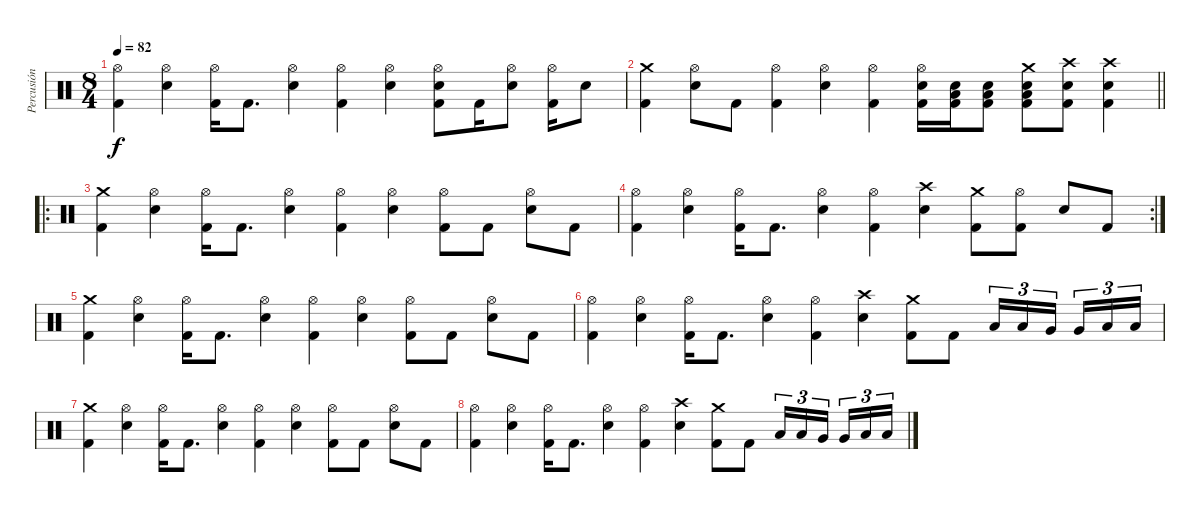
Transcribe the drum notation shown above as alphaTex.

\track ("Percusión" "Percusión") {instrument percussion}
\staff {score}
\articulation defaults
\ts (8 4)
\tempo 82
\clef neutral
\ks c
("Hi-Hat (open)" "Kick (hit) 2").4{dy f} ("Hi-Hat (open)" "Electric Snare (hit)").4 ("Hi-Hat (open)" "Kick (hit) 2").16 "Kick (hit) 2".8{d} ("Hi-Hat (open)" "Electric Snare (hit)").4 ("Hi-Hat (open)" "Kick (hit) 2").4 ("Hi-Hat (open)" "Electric Snare (hit)").4 ("Hi-Hat (open)" "Electric Snare (hit)" "Kick (hit) 2").8 "Kick (hit) 2".16 ("Hi-Hat (open)" "Electric Snare (hit)").8 ("Hi-Hat (open)" "Kick (hit) 2").16 "Electric Snare (hit)".8 |
\barLineRight lightlight
("Crash medium (hit)" "Kick (hit) 2").4 ("Hi-Hat (open)" "Electric Snare (hit)").8 "Kick (hit) 2".8 ("Hi-Hat (open)" "Kick (hit) 2").4 ("Hi-Hat (open)" "Electric Snare (hit)").4 ("Hi-Hat (open)" "Kick (hit) 2").4 ("Hi-Hat (open)" "Electric Snare (hit)" "Kick (hit) 2").16 ("Low Tom (hit)" "Electric Snare (hit)" "Kick (hit) 2").16 ("Low Tom (hit)" "Electric Snare (hit)" "Kick (hit) 2").8 ("Crash medium (hit)" "Low Floor Tom (hit)" "Electric Snare (hit)" "Kick (hit) 2").8 ("Crash high (hit)" "Electric Snare (hit)" "Kick (hit) 2").8 ("Crash high (hit)" "Electric Snare (hit)" "Kick (hit) 2").4 |
\ro
("Crash medium (hit)" "Kick (hit) 2").4 ("Hi-Hat (open)" "Electric Snare (hit)").4 ("Hi-Hat (open)" "Kick (hit) 2").16 "Kick (hit) 2".8{d} ("Hi-Hat (open)" "Electric Snare (hit)").4 ("Hi-Hat (open)" "Kick (hit) 2").4 ("Hi-Hat (open)" "Electric Snare (hit)").4 ("Hi-Hat (open)" "Kick (hit) 2").8 "Kick (hit) 2".8 ("Hi-Hat (open)" "Electric Snare (hit)").8 "Kick (hit) 2".8 |
\rc 2
("Hi-Hat (open)" "Kick (hit) 2").4 ("Hi-Hat (open)" "Electric Snare (hit)").4 ("Hi-Hat (open)" "Kick (hit) 2").16 "Kick (hit) 2".8{d} ("Hi-Hat (open)" "Electric Snare (hit)").4 ("Hi-Hat (open)" "Kick (hit) 2").4 ("Crash high (hit)" "Electric Snare (hit)").4 ("Crash medium (hit)" "Kick (hit) 2").8 ("Hi-Hat (open)" "Kick (hit) 2").8 "Electric Snare (hit)".8 "Kick (hit) 2".8 |
("Crash medium (hit)" "Kick (hit) 2").4 ("Hi-Hat (open)" "Electric Snare (hit)").4 ("Hi-Hat (open)" "Kick (hit) 2").16 "Kick (hit) 2".8{d} ("Hi-Hat (open)" "Electric Snare (hit)").4 ("Hi-Hat (open)" "Kick (hit) 2").4 ("Hi-Hat (open)" "Electric Snare (hit)").4 ("Hi-Hat (open)" "Kick (hit) 2").8 "Kick (hit) 2".8 ("Hi-Hat (open)" "Electric Snare (hit)").8 "Kick (hit) 2".8 |
("Hi-Hat (open)" "Kick (hit) 2").4 ("Hi-Hat (open)" "Electric Snare (hit)").4 ("Hi-Hat (open)" "Kick (hit) 2").16 "Kick (hit) 2".8{d} ("Hi-Hat (open)" "Electric Snare (hit)").4 ("Hi-Hat (open)" "Kick (hit) 2").4 ("Crash high (hit)" "Electric Snare (hit)").4 ("Crash medium (hit)" "Kick (hit) 2").8 "Kick (hit) 2".8 "Low Tom (hit)".16{tu (3 2)} "Low Tom (hit)".16{tu (3 2)} "Very Low Tom (hit)".16{tu (3 2) beam splitsecondary} "Very Low Tom (hit)".16{tu (3 2)} "Low Floor Tom (hit)".16{tu (3 2)} "Low Floor Tom (hit)".16{tu (3 2)} |
("Crash medium (hit)" "Kick (hit) 2").4 ("Hi-Hat (open)" "Electric Snare (hit)").4 ("Hi-Hat (open)" "Kick (hit) 2").16 "Kick (hit) 2".8{d} ("Hi-Hat (open)" "Electric Snare (hit)").4 ("Hi-Hat (open)" "Kick (hit) 2").4 ("Hi-Hat (open)" "Electric Snare (hit)").4 ("Hi-Hat (open)" "Kick (hit) 2").8 "Kick (hit) 2".8 ("Hi-Hat (open)" "Electric Snare (hit)").8 "Kick (hit) 2".8 |
("Hi-Hat (open)" "Kick (hit) 2").4 ("Hi-Hat (open)" "Electric Snare (hit)").4 ("Hi-Hat (open)" "Kick (hit) 2").16 "Kick (hit) 2".8{d} ("Hi-Hat (open)" "Electric Snare (hit)").4 ("Hi-Hat (open)" "Kick (hit) 2").4 ("Crash high (hit)" "Electric Snare (hit)").4 ("Crash medium (hit)" "Kick (hit) 2").8 "Kick (hit) 2".8 "Low Tom (hit)".16{tu (3 2)} "Low Tom (hit)".16{tu (3 2)} "Very Low Tom (hit)".16{tu (3 2) beam splitsecondary} "Very Low Tom (hit)".16{tu (3 2)} "Low Floor Tom (hit)".16{tu (3 2)} "Low Floor Tom (hit)".16{tu (3 2)}
